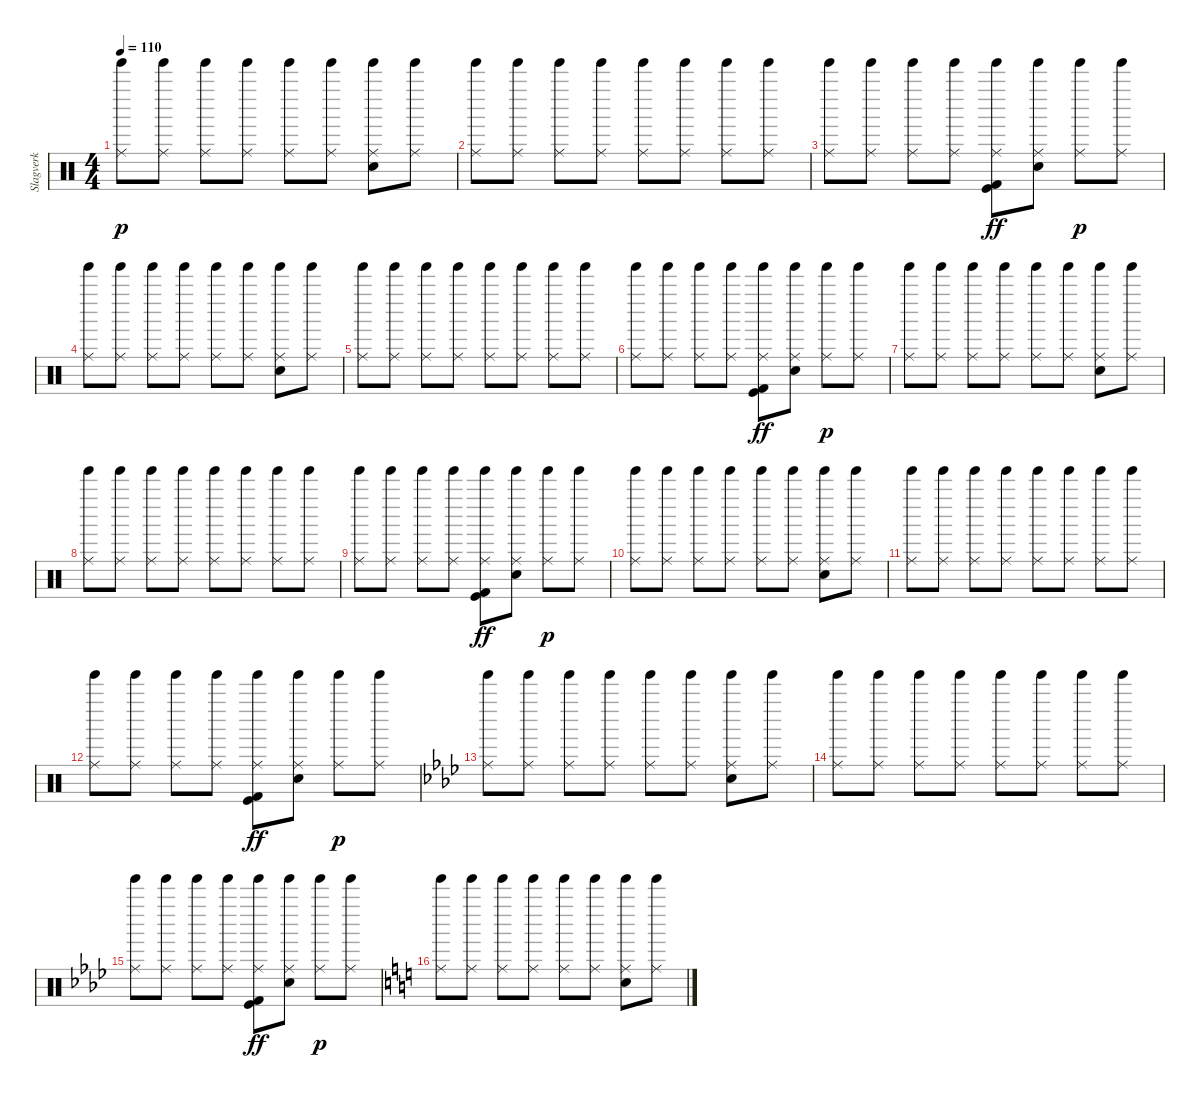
\track ("Slagverk" "Slagverk") {instrument percussion}
\staff {score}
\articulation defaults
\ts (4 4)
\tempo 110
\clef neutral
\ks c
("Tinkle Bell (hit)" "Ride (middle)").8{dy p} ("Tinkle Bell (hit)" "Ride (middle)").8 ("Tinkle Bell (hit)" "Ride (middle)").8 ("Tinkle Bell (hit)" "Ride (middle)").8 ("Tinkle Bell (hit)" "Ride (middle)").8 ("Tinkle Bell (hit)" "Ride (middle)").8 ("Tinkle Bell (hit)" "Ride (middle)" "Electric Snare (hit)").8 ("Tinkle Bell (hit)" "Ride (middle)").8 |
("Tinkle Bell (hit)" "Ride (middle)").8 ("Tinkle Bell (hit)" "Ride (middle)").8 ("Tinkle Bell (hit)" "Ride (middle)").8 ("Tinkle Bell (hit)" "Ride (middle)").8 ("Tinkle Bell (hit)" "Ride (middle)").8 ("Tinkle Bell (hit)" "Ride (middle)").8 ("Tinkle Bell (hit)" "Ride (middle)").8 ("Tinkle Bell (hit)" "Ride (middle)").8 |
("Tinkle Bell (hit)" "Ride (middle)").8 ("Tinkle Bell (hit)" "Ride (middle)").8 ("Tinkle Bell (hit)" "Ride (middle)").8 ("Tinkle Bell (hit)" "Ride (middle)").8 ("Tinkle Bell (hit)" "Ride (middle)" "Kick (hit) 2" "Kick (hit)").8{dy ff} ("Tinkle Bell (hit)" "Ride (middle)" "Electric Snare (hit)").8 ("Tinkle Bell (hit)" "Ride (middle)").8{dy p} ("Tinkle Bell (hit)" "Ride (middle)").8 |
("Tinkle Bell (hit)" "Ride (middle)").8 ("Tinkle Bell (hit)" "Ride (middle)").8 ("Tinkle Bell (hit)" "Ride (middle)").8 ("Tinkle Bell (hit)" "Ride (middle)").8 ("Tinkle Bell (hit)" "Ride (middle)").8 ("Tinkle Bell (hit)" "Ride (middle)").8 ("Tinkle Bell (hit)" "Ride (middle)" "Electric Snare (hit)").8 ("Tinkle Bell (hit)" "Ride (middle)").8 |
("Tinkle Bell (hit)" "Ride (middle)").8 ("Tinkle Bell (hit)" "Ride (middle)").8 ("Tinkle Bell (hit)" "Ride (middle)").8 ("Tinkle Bell (hit)" "Ride (middle)").8 ("Tinkle Bell (hit)" "Ride (middle)").8 ("Tinkle Bell (hit)" "Ride (middle)").8 ("Tinkle Bell (hit)" "Ride (middle)").8 ("Tinkle Bell (hit)" "Ride (middle)").8 |
("Tinkle Bell (hit)" "Ride (middle)").8 ("Tinkle Bell (hit)" "Ride (middle)").8 ("Tinkle Bell (hit)" "Ride (middle)").8 ("Tinkle Bell (hit)" "Ride (middle)").8 ("Tinkle Bell (hit)" "Ride (middle)" "Kick (hit) 2" "Kick (hit)").8{dy ff} ("Tinkle Bell (hit)" "Ride (middle)" "Electric Snare (hit)").8 ("Tinkle Bell (hit)" "Ride (middle)").8{dy p} ("Tinkle Bell (hit)" "Ride (middle)").8 |
("Tinkle Bell (hit)" "Ride (middle)").8 ("Tinkle Bell (hit)" "Ride (middle)").8 ("Tinkle Bell (hit)" "Ride (middle)").8 ("Tinkle Bell (hit)" "Ride (middle)").8 ("Tinkle Bell (hit)" "Ride (middle)").8 ("Tinkle Bell (hit)" "Ride (middle)").8 ("Tinkle Bell (hit)" "Ride (middle)" "Electric Snare (hit)").8 ("Tinkle Bell (hit)" "Ride (middle)").8 |
("Tinkle Bell (hit)" "Ride (middle)").8 ("Tinkle Bell (hit)" "Ride (middle)").8 ("Tinkle Bell (hit)" "Ride (middle)").8 ("Tinkle Bell (hit)" "Ride (middle)").8 ("Tinkle Bell (hit)" "Ride (middle)").8 ("Tinkle Bell (hit)" "Ride (middle)").8 ("Tinkle Bell (hit)" "Ride (middle)").8 ("Tinkle Bell (hit)" "Ride (middle)").8 |
("Tinkle Bell (hit)" "Ride (middle)").8 ("Tinkle Bell (hit)" "Ride (middle)").8 ("Tinkle Bell (hit)" "Ride (middle)").8 ("Tinkle Bell (hit)" "Ride (middle)").8 ("Tinkle Bell (hit)" "Ride (middle)" "Kick (hit) 2" "Kick (hit)").8{dy ff} ("Tinkle Bell (hit)" "Ride (middle)" "Electric Snare (hit)").8 ("Tinkle Bell (hit)" "Ride (middle)").8{dy p} ("Tinkle Bell (hit)" "Ride (middle)").8 |
("Tinkle Bell (hit)" "Ride (middle)").8 ("Tinkle Bell (hit)" "Ride (middle)").8 ("Tinkle Bell (hit)" "Ride (middle)").8 ("Tinkle Bell (hit)" "Ride (middle)").8 ("Tinkle Bell (hit)" "Ride (middle)").8 ("Tinkle Bell (hit)" "Ride (middle)").8 ("Tinkle Bell (hit)" "Ride (middle)" "Electric Snare (hit)").8 ("Tinkle Bell (hit)" "Ride (middle)").8 |
("Tinkle Bell (hit)" "Ride (middle)").8 ("Tinkle Bell (hit)" "Ride (middle)").8 ("Tinkle Bell (hit)" "Ride (middle)").8 ("Tinkle Bell (hit)" "Ride (middle)").8 ("Tinkle Bell (hit)" "Ride (middle)").8 ("Tinkle Bell (hit)" "Ride (middle)").8 ("Tinkle Bell (hit)" "Ride (middle)").8 ("Tinkle Bell (hit)" "Ride (middle)").8 |
("Tinkle Bell (hit)" "Ride (middle)").8 ("Tinkle Bell (hit)" "Ride (middle)").8 ("Tinkle Bell (hit)" "Ride (middle)").8 ("Tinkle Bell (hit)" "Ride (middle)").8 ("Tinkle Bell (hit)" "Ride (middle)" "Kick (hit) 2" "Kick (hit)").8{dy ff} ("Tinkle Bell (hit)" "Ride (middle)" "Electric Snare (hit)").8 ("Tinkle Bell (hit)" "Ride (middle)").8{dy p} ("Tinkle Bell (hit)" "Ride (middle)").8 |
\ks ab
("Tinkle Bell (hit)" "Ride (middle)").8 ("Tinkle Bell (hit)" "Ride (middle)").8 ("Tinkle Bell (hit)" "Ride (middle)").8 ("Tinkle Bell (hit)" "Ride (middle)").8 ("Tinkle Bell (hit)" "Ride (middle)").8 ("Tinkle Bell (hit)" "Ride (middle)").8 ("Tinkle Bell (hit)" "Ride (middle)" "Electric Snare (hit)").8 ("Tinkle Bell (hit)" "Ride (middle)").8 |
("Tinkle Bell (hit)" "Ride (middle)").8 ("Tinkle Bell (hit)" "Ride (middle)").8 ("Tinkle Bell (hit)" "Ride (middle)").8 ("Tinkle Bell (hit)" "Ride (middle)").8 ("Tinkle Bell (hit)" "Ride (middle)").8 ("Tinkle Bell (hit)" "Ride (middle)").8 ("Tinkle Bell (hit)" "Ride (middle)").8 ("Tinkle Bell (hit)" "Ride (middle)").8 |
("Tinkle Bell (hit)" "Ride (middle)").8 ("Tinkle Bell (hit)" "Ride (middle)").8 ("Tinkle Bell (hit)" "Ride (middle)").8 ("Tinkle Bell (hit)" "Ride (middle)").8 ("Tinkle Bell (hit)" "Ride (middle)" "Kick (hit) 2" "Kick (hit)").8{dy ff} ("Tinkle Bell (hit)" "Ride (middle)" "Electric Snare (hit)").8 ("Tinkle Bell (hit)" "Ride (middle)").8{dy p} ("Tinkle Bell (hit)" "Ride (middle)").8 |
\ks c
("Tinkle Bell (hit)" "Ride (middle)").8 ("Tinkle Bell (hit)" "Ride (middle)").8 ("Tinkle Bell (hit)" "Ride (middle)").8 ("Tinkle Bell (hit)" "Ride (middle)").8 ("Tinkle Bell (hit)" "Ride (middle)").8 ("Tinkle Bell (hit)" "Ride (middle)").8 ("Tinkle Bell (hit)" "Ride (middle)" "Electric Snare (hit)").8 ("Tinkle Bell (hit)" "Ride (middle)").8
